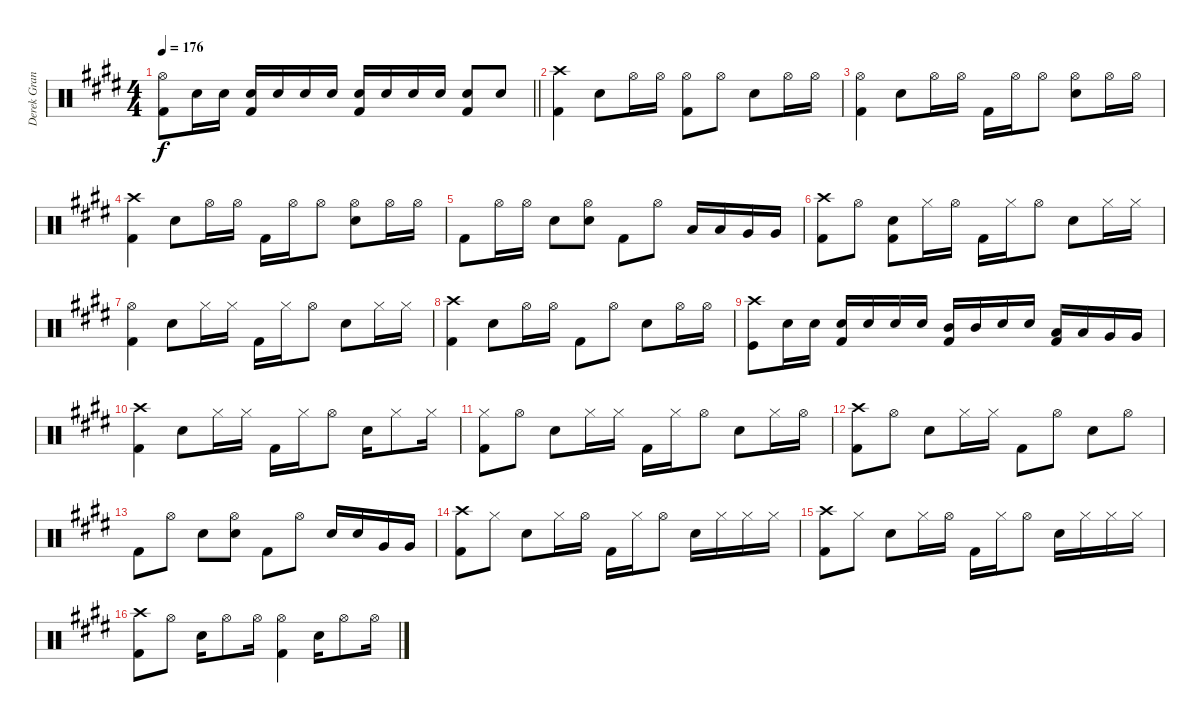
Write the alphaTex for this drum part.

\track ("Derek Grant - Drums" "Derek Gran") {instrument percussion}
\staff {score}
\articulation defaults
\ts (4 4)
\tempo 176
\clef neutral
\barLineRight lightlight
\ks e
("Kick (hit) 2" "Hi-Hat (open)").8{dy f} "Snare (hit) 2".16 "Snare (hit) 2".16 ("Snare (hit) 2" "Kick (hit) 2").16 "Snare (hit) 2".16 "Snare (hit) 2".16 "Snare (hit) 2".16 ("Snare (hit) 2" "Kick (hit) 2").16 "Snare (hit) 2".16 "Snare (hit) 2".16 "Snare (hit) 2".16 ("Snare (hit) 2" "Kick (hit) 2").8 "Snare (hit) 2".8 |
("Crash high (hit)" "Kick (hit) 2").4 "Snare (hit) 2".8 "Hi-Hat (open)".16 "Hi-Hat (open)".16 ("Kick (hit) 2" "Hi-Hat (open)").8 "Hi-Hat (open)".8 "Snare (hit) 2".8 "Hi-Hat (open)".16 "Hi-Hat (open)".16 |
("Kick (hit) 2" "Hi-Hat (open)").4 "Snare (hit) 2".8 "Hi-Hat (open)".16 "Hi-Hat (open)".16 "Kick (hit) 2".16 "Hi-Hat (open)".16 "Hi-Hat (open)".8 ("Snare (hit) 2" "Hi-Hat (open)").8 "Hi-Hat (open)".16 "Hi-Hat (open)".16 |
("Kick (hit) 2" "Crash high (hit)").4 "Snare (hit) 2".8 "Hi-Hat (open)".16 "Hi-Hat (open)".16 "Kick (hit) 2".16 "Hi-Hat (open)".16 "Hi-Hat (open)".8 ("Snare (hit) 2" "Hi-Hat (open)").8 "Hi-Hat (open)".16 "Hi-Hat (open)".16 |
"Kick (hit) 2".8 "Hi-Hat (open)".16 "Hi-Hat (open)".16 "Snare (hit) 2".8 ("Hi-Hat (open)" "Snare (hit) 2").8 "Kick (hit) 2".8 "Hi-Hat (open)".8 "Low Tom (hit)".16 "Low Tom (hit)".16 "Very Low Tom (hit)".16 "Very Low Tom (hit)".16 |
("Kick (hit) 2" "Crash high (hit)").8 "Hi-Hat (open)".8 ("Kick (hit) 2" "Snare (hit) 2").8 "Hi-Hat (closed)".16 "Hi-Hat (open)".16 "Kick (hit) 2".16 "Hi-Hat (closed)".16 "Hi-Hat (open)".8 "Snare (hit) 2".8 "Hi-Hat (closed)".16 "Hi-Hat (closed)".16 |
("Kick (hit) 2" "Hi-Hat (open)").4 "Snare (hit) 2".8 "Hi-Hat (closed)".16 "Hi-Hat (closed)".16 "Kick (hit) 2".16 "Hi-Hat (closed)".16 "Hi-Hat (open)".8 "Snare (hit) 2".8 "Hi-Hat (closed)".16 "Hi-Hat (closed)".16 |
("Kick (hit) 2" "Crash high (hit)").4 "Snare (hit) 2".8 "Hi-Hat (open)".16 "Hi-Hat (open)".16 "Kick (hit) 2".8 "Hi-Hat (open)".8 "Snare (hit) 2".8 "Hi-Hat (open)".16 "Hi-Hat (open)".16 |
("Kick (hit)" "Crash high (hit)").8 "Snare (hit) 2".16 "Snare (hit) 2".16 ("Snare (hit) 2" "Kick (hit) 2").16 "Snare (hit) 2".16 "Snare (hit) 2".16 "Snare (hit) 2".16 ("Mid Tom (hit)" "Kick (hit) 2").16 "Mid Tom (hit)".16 "Snare (hit) 2".16 "Snare (hit) 2".16 ("Low Tom (hit)" "Kick (hit) 2").16 "Low Tom (hit)".16 "Very Low Tom (hit)".16 "Very Low Tom (hit)".16 |
("Crash high (hit)" "Kick (hit) 2").4 "Snare (hit) 2".8 "Hi-Hat (closed)".16 "Hi-Hat (closed)".16 "Kick (hit) 2".16 "Hi-Hat (closed)".16 "Hi-Hat (open)".8 "Snare (hit) 2".16 "Hi-Hat (closed)".8 "Hi-Hat (closed)".16 |
("Hi-Hat (closed)" "Kick (hit) 2").8 "Hi-Hat (open)".8 "Snare (hit) 2".8 "Hi-Hat (closed)".16 "Hi-Hat (closed)".16 "Kick (hit) 2".16 "Hi-Hat (closed)".16 "Hi-Hat (open)".8 "Snare (hit) 2".8 "Hi-Hat (closed)".16 "Hi-Hat (open)".16 |
("Crash high (hit)" "Kick (hit) 2").8 "Hi-Hat (open)".8 "Snare (hit) 2".8 "Hi-Hat (closed)".16 "Hi-Hat (closed)".16 "Kick (hit) 2".8 "Hi-Hat (open)".8 "Snare (hit) 2".8 "Hi-Hat (open)".8 |
"Kick (hit) 2".8 "Hi-Hat (open)".8 "Snare (hit) 2".8 ("Snare (hit) 2" "Hi-Hat (open)").8 "Kick (hit) 2".8 "Hi-Hat (open)".8 "Snare (hit) 2".16 "Snare (hit) 2".16 "Very Low Tom (hit)".16 "Very Low Tom (hit)".16 |
("Crash high (hit)" "Kick (hit) 2").8 "Hi-Hat (closed)".8 "Snare (hit) 2".8 "Hi-Hat (closed)".16 "Hi-Hat (open)".16 "Kick (hit) 2".16 "Hi-Hat (closed)".16 "Hi-Hat (open)".8 "Snare (hit) 2".16 "Hi-Hat (closed)".16 "Hi-Hat (closed)".16 "Hi-Hat (closed)".16 |
("Crash high (hit)" "Kick (hit) 2").8 "Hi-Hat (closed)".8 "Snare (hit) 2".8 "Hi-Hat (closed)".16 "Hi-Hat (open)".16 "Kick (hit) 2".16 "Hi-Hat (closed)".16 "Hi-Hat (open)".8 "Snare (hit) 2".16 "Hi-Hat (closed)".16 "Hi-Hat (closed)".16 "Hi-Hat (closed)".16 |
("Crash high (hit)" "Kick (hit) 2").8 "Hi-Hat (open)".8 "Snare (hit) 2".16 "Hi-Hat (open)".8 "Hi-Hat (open)".16 ("Kick (hit) 2" "Hi-Hat (open)").4 "Snare (hit) 2".16 "Hi-Hat (open)".8 "Hi-Hat (open)".16
